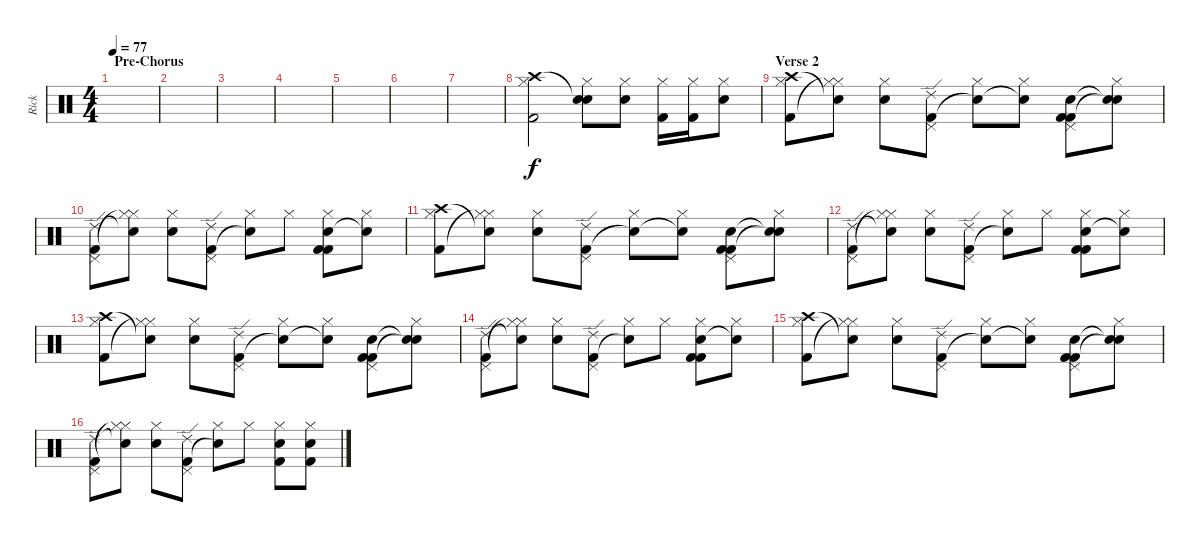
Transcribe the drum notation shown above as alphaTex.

\track ("Rick" "Rick") {instrument percussion}
\staff {score}
\articulation defaults
\ts (4 4)
\section ("" "Pre-Chorus")
\tempo 77
\clef neutral
\ks c
|
|
|
|
|
|
|
("Hi-Hat (closed)" "Kick (hit) 2" "Crash high (hit)").2 ("Hi-Hat (closed)" "Electric Snare (hit)" "Snare (hit)"{t}).8 ("Hi-Hat (closed)" "Electric Snare (hit)").8 ("Hi-Hat (closed)" "Kick (hit) 2").16 ("Hi-Hat (closed)" "Kick (hit) 2").16 ("Hi-Hat (closed)" "Electric Snare (hit)").8 |
\section ("" "Verse 2")
("Hi-Hat (closed)" "Kick (hit) 2" "Crash high (hit)").8 ("Hi-Hat (closed)" "Hi-Hat (closed)"{t} "Snare (hit)"{t}).8 ("Hi-Hat (closed)" "Electric Snare (hit)").8 ("Pedal Hi-Hat (hit)" "Kick (hit) 2" "Ride (edge) 2").8 ("Hi-Hat (closed)" "Snare (hit)"{t}).8 ("Hi-Hat (closed)" "Snare (hit)"{t}).8 ("Pedal Hi-Hat (hit)" "Electric Snare (hit)" "Kick (hit) 2" "Kick (hit) 2").8 ("Hi-Hat (closed)" "Snare (hit)"{t} "Snare (hit)"{t}).8 |
("Pedal Hi-Hat (hit)" "Kick (hit) 2" "Ride (edge) 2").8 ("Hi-Hat (closed)" "Hi-Hat (closed)"{t} "Snare (hit)"{t}).8 ("Hi-Hat (closed)" "Electric Snare (hit)").8 ("Pedal Hi-Hat (hit)" "Kick (hit) 2" "Ride (edge) 2").8 ("Hi-Hat (closed)" "Snare (hit)"{t}).8 "Hi-Hat (closed)".8 ("Hi-Hat (closed)" "Electric Snare (hit)" "Kick (hit) 2" "Kick (hit) 2").8 ("Hi-Hat (closed)" "Snare (hit)"{t}).8 |
("Hi-Hat (closed)" "Kick (hit) 2" "Crash high (hit)").8 ("Hi-Hat (closed)" "Hi-Hat (closed)"{t} "Snare (hit)"{t}).8 ("Hi-Hat (closed)" "Electric Snare (hit)").8 ("Pedal Hi-Hat (hit)" "Kick (hit) 2" "Ride (edge) 2").8 ("Hi-Hat (closed)" "Snare (hit)"{t}).8 ("Hi-Hat (closed)" "Snare (hit)"{t}).8 ("Pedal Hi-Hat (hit)" "Electric Snare (hit)" "Kick (hit) 2" "Kick (hit) 2").8 ("Hi-Hat (closed)" "Snare (hit)"{t} "Snare (hit)"{t}).8 |
("Pedal Hi-Hat (hit)" "Kick (hit) 2" "Ride (edge) 2").8 ("Hi-Hat (closed)" "Hi-Hat (closed)"{t} "Snare (hit)"{t}).8 ("Hi-Hat (closed)" "Electric Snare (hit)").8 ("Pedal Hi-Hat (hit)" "Kick (hit) 2" "Ride (edge) 2").8 ("Hi-Hat (closed)" "Snare (hit)"{t}).8 "Hi-Hat (closed)".8 ("Hi-Hat (closed)" "Electric Snare (hit)" "Kick (hit) 2" "Kick (hit) 2").8 ("Hi-Hat (closed)" "Snare (hit)"{t}).8 |
("Hi-Hat (closed)" "Kick (hit) 2" "Crash high (hit)").8 ("Hi-Hat (closed)" "Hi-Hat (closed)"{t} "Snare (hit)"{t}).8 ("Hi-Hat (closed)" "Electric Snare (hit)").8 ("Pedal Hi-Hat (hit)" "Kick (hit) 2" "Ride (edge) 2").8 ("Hi-Hat (closed)" "Snare (hit)"{t}).8 ("Hi-Hat (closed)" "Snare (hit)"{t}).8 ("Pedal Hi-Hat (hit)" "Electric Snare (hit)" "Kick (hit) 2" "Kick (hit) 2").8 ("Hi-Hat (closed)" "Snare (hit)"{t} "Snare (hit)"{t}).8 |
("Pedal Hi-Hat (hit)" "Kick (hit) 2" "Ride (edge) 2").8 ("Hi-Hat (closed)" "Hi-Hat (closed)"{t} "Snare (hit)"{t}).8 ("Hi-Hat (closed)" "Electric Snare (hit)").8 ("Pedal Hi-Hat (hit)" "Kick (hit) 2" "Ride (edge) 2").8 ("Hi-Hat (closed)" "Snare (hit)"{t}).8 "Hi-Hat (closed)".8 ("Hi-Hat (closed)" "Electric Snare (hit)" "Kick (hit) 2" "Kick (hit) 2").8 ("Hi-Hat (closed)" "Snare (hit)"{t}).8 |
("Hi-Hat (closed)" "Kick (hit) 2" "Crash high (hit)").8 ("Hi-Hat (closed)" "Hi-Hat (closed)"{t} "Snare (hit)"{t}).8 ("Hi-Hat (closed)" "Electric Snare (hit)").8 ("Pedal Hi-Hat (hit)" "Kick (hit) 2" "Ride (edge) 2").8 ("Hi-Hat (closed)" "Snare (hit)"{t}).8 ("Hi-Hat (closed)" "Snare (hit)"{t}).8 ("Pedal Hi-Hat (hit)" "Electric Snare (hit)" "Kick (hit) 2" "Kick (hit) 2").8 ("Hi-Hat (closed)" "Snare (hit)"{t} "Snare (hit)"{t}).8 |
("Pedal Hi-Hat (hit)" "Kick (hit) 2" "Ride (edge) 2").8 ("Hi-Hat (closed)" "Hi-Hat (closed)"{t} "Snare (hit)"{t}).8 ("Hi-Hat (closed)" "Electric Snare (hit)").8 ("Pedal Hi-Hat (hit)" "Kick (hit) 2" "Ride (edge) 2").8 ("Hi-Hat (closed)" "Snare (hit)"{t}).8 "Hi-Hat (closed)".8 ("Hi-Hat (closed)" "Electric Snare (hit)" "Kick (hit) 2").8 ("Hi-Hat (closed)" "Electric Snare (hit)" "Kick (hit) 2").8
